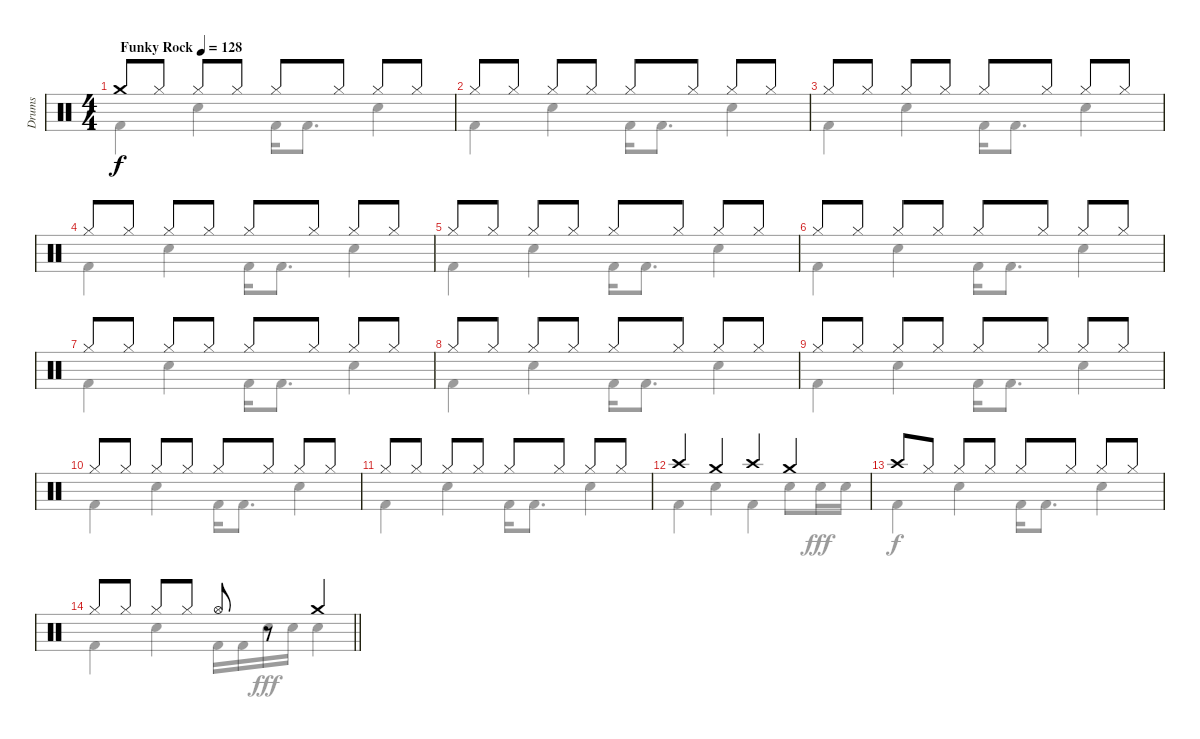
\track ("Drums" "Drums") {instrument percussion}
\staff {score}
\articulation defaults
\voice
\ts (4 4)
\tempo (128 "Funky Rock")
\clef neutral
\ks c "Crash medium (hit)".8{dy f} "Hi-Hat (closed)".8 "Hi-Hat (closed)".8 "Hi-Hat (closed)".8 "Hi-Hat (closed)".8 "Hi-Hat (closed)".8 "Hi-Hat (closed)".8 "Hi-Hat (closed)".8
|
"Hi-Hat (closed)".8 "Hi-Hat (closed)".8 "Hi-Hat (closed)".8 "Hi-Hat (closed)".8 "Hi-Hat (closed)".8 "Hi-Hat (closed)".8 "Hi-Hat (closed)".8 "Hi-Hat (closed)".8 |
"Hi-Hat (closed)".8 "Hi-Hat (closed)".8 "Hi-Hat (closed)".8 "Hi-Hat (closed)".8 "Hi-Hat (closed)".8 "Hi-Hat (closed)".8 "Hi-Hat (closed)".8 "Hi-Hat (closed)".8 |
"Hi-Hat (closed)".8 "Hi-Hat (closed)".8 "Hi-Hat (closed)".8 "Hi-Hat (closed)".8 "Hi-Hat (closed)".8 "Hi-Hat (closed)".8 "Hi-Hat (closed)".8 "Hi-Hat (closed)".8 |
"Hi-Hat (closed)".8 "Hi-Hat (closed)".8 "Hi-Hat (closed)".8 "Hi-Hat (closed)".8 "Hi-Hat (closed)".8 "Hi-Hat (closed)".8 "Hi-Hat (closed)".8 "Hi-Hat (closed)".8 |
"Hi-Hat (closed)".8 "Hi-Hat (closed)".8 "Hi-Hat (closed)".8 "Hi-Hat (closed)".8 "Hi-Hat (closed)".8 "Hi-Hat (closed)".8 "Hi-Hat (closed)".8 "Hi-Hat (closed)".8 |
"Hi-Hat (closed)".8 "Hi-Hat (closed)".8 "Hi-Hat (closed)".8 "Hi-Hat (closed)".8 "Hi-Hat (closed)".8 "Hi-Hat (closed)".8 "Hi-Hat (closed)".8 "Hi-Hat (closed)".8 |
"Hi-Hat (closed)".8 "Hi-Hat (closed)".8 "Hi-Hat (closed)".8 "Hi-Hat (closed)".8 "Hi-Hat (closed)".8 "Hi-Hat (closed)".8 "Hi-Hat (closed)".8 "Hi-Hat (closed)".8 |
"Hi-Hat (closed)".8 "Hi-Hat (closed)".8 "Hi-Hat (closed)".8 "Hi-Hat (closed)".8 "Hi-Hat (closed)".8 "Hi-Hat (closed)".8 "Hi-Hat (closed)".8 "Hi-Hat (closed)".8 |
"Hi-Hat (closed)".8 "Hi-Hat (closed)".8 "Hi-Hat (closed)".8 "Hi-Hat (closed)".8 "Hi-Hat (closed)".8 "Hi-Hat (closed)".8 "Hi-Hat (closed)".8 "Hi-Hat (closed)".8 |
"Hi-Hat (closed)".8 "Hi-Hat (closed)".8 "Hi-Hat (closed)".8 "Hi-Hat (closed)".8 "Hi-Hat (closed)".8 "Hi-Hat (closed)".8 "Hi-Hat (closed)".8 "Hi-Hat (closed)".8 |
"Crash high (hit)".4 "Crash medium (hit)".4 "Crash high (hit)".4 "Crash medium (hit)".4 |
"Crash high (hit)".8 "Hi-Hat (closed)".8 "Hi-Hat (closed)".8 "Hi-Hat (closed)".8 "Hi-Hat (closed)".8 "Hi-Hat (closed)".8 "Hi-Hat (closed)".8 "Hi-Hat (closed)".8 |
\barLineRight lightlight "Hi-Hat (closed)".8 "Hi-Hat (closed)".8 "Hi-Hat (closed)".8 "Hi-Hat (closed)".8 "Hi-Hat (open)".8
r.8 "Crash medium (hit)".4
\voice
\clef neutral
\ottava regular
\simile none
\ks c "Kick (hit) 2".4{dy f} "Electric Snare (hit)".4 "Kick (hit) 2".16 "Kick (hit) 2".8{d} "Electric Snare (hit)".4
|
"Kick (hit) 2".4 "Electric Snare (hit)".4 "Kick (hit) 2".16 "Kick (hit) 2".8{d} "Electric Snare (hit)".4 |
"Kick (hit) 2".4 "Electric Snare (hit)".4 "Kick (hit) 2".16 "Kick (hit) 2".8{d} "Electric Snare (hit)".4 |
"Kick (hit) 2".4 "Electric Snare (hit)".4 "Kick (hit) 2".16 "Kick (hit) 2".8{d} "Electric Snare (hit)".4 |
"Kick (hit) 2".4 "Electric Snare (hit)".4 "Kick (hit) 2".16 "Kick (hit) 2".8{d} "Electric Snare (hit)".4 |
"Kick (hit) 2".4 "Electric Snare (hit)".4 "Kick (hit) 2".16 "Kick (hit) 2".8{d} "Electric Snare (hit)".4 |
"Kick (hit) 2".4 "Electric Snare (hit)".4 "Kick (hit) 2".16 "Kick (hit) 2".8{d} "Electric Snare (hit)".4 |
"Kick (hit) 2".4 "Electric Snare (hit)".4 "Kick (hit) 2".16 "Kick (hit) 2".8{d} "Electric Snare (hit)".4 |
"Kick (hit) 2".4 "Electric Snare (hit)".4 "Kick (hit) 2".16 "Kick (hit) 2".8{d} "Electric Snare (hit)".4 |
"Kick (hit) 2".4 "Electric Snare (hit)".4 "Kick (hit) 2".16 "Kick (hit) 2".8{d} "Electric Snare (hit)".4 |
"Kick (hit) 2".4 "Electric Snare (hit)".4 "Kick (hit) 2".16 "Kick (hit) 2".8{d} "Electric Snare (hit)".4 |
"Kick (hit) 2".4 "Electric Snare (hit)".4 "Kick (hit) 2".4 "Electric Snare (hit)".8 "Electric Snare (hit)".16{dy fff} "Electric Snare (hit)".16 |
"Kick (hit) 2".4{dy f} "Electric Snare (hit)".4 "Kick (hit) 2".16 "Kick (hit) 2".8{d} "Electric Snare (hit)".4 |
\barLineRight lightlight "Kick (hit) 2".4 "Electric Snare (hit)".4 "Kick (hit) 2".16 "Kick (hit) 2".16 "Electric Snare (hit)".16{dy fff} "Electric Snare (hit)".16 "Electric Snare (hit)".4
